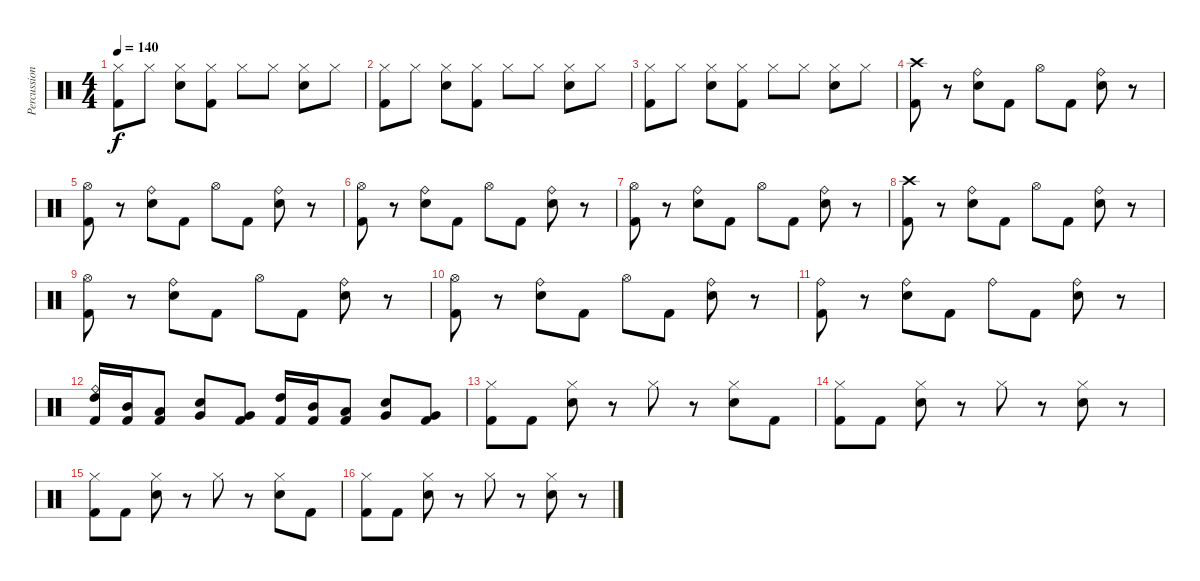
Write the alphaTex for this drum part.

\track ("Percussion" "Percussion") {instrument percussion}
\staff {score}
\articulation defaults
\ts (4 4)
\tempo 140
\clef neutral
\ks c
("Hi-Hat (closed)" "Kick (hit) 2").8{dy f} "Hi-Hat (closed)".8 ("Hi-Hat (closed)" "Snare (hit) 2").8 ("Hi-Hat (closed)" "Kick (hit) 2").8 "Hi-Hat (closed)".8 "Hi-Hat (closed)".8 ("Hi-Hat (closed)" "Snare (hit) 2").8 "Hi-Hat (closed)".8 |
("Hi-Hat (closed)" "Kick (hit) 2").8 "Hi-Hat (closed)".8 ("Hi-Hat (closed)" "Snare (hit) 2").8 ("Hi-Hat (closed)" "Kick (hit) 2").8 "Hi-Hat (closed)".8 "Hi-Hat (closed)".8 ("Hi-Hat (closed)" "Snare (hit) 2").8 "Hi-Hat (closed)".8 |
("Hi-Hat (closed)" "Kick (hit) 2").8 "Hi-Hat (closed)".8 ("Hi-Hat (closed)" "Snare (hit) 2").8 ("Hi-Hat (closed)" "Kick (hit) 2").8 "Hi-Hat (closed)".8 "Hi-Hat (closed)".8 ("Hi-Hat (closed)" "Snare (hit) 2").8 "Hi-Hat (closed)".8 |
("Crash high (hit)" "Kick (hit) 2").8 r.8 ("Ride (bell)" "Snare (hit) 2").8 "Kick (hit) 2".8 "Hi-Hat (open)".8 "Kick (hit) 2".8 ("Ride (bell)" "Snare (hit) 2").8 r.8 |
("Hi-Hat (open)" "Kick (hit) 2").8 r.8 ("Ride (bell)" "Snare (hit) 2").8 "Kick (hit) 2".8 "Hi-Hat (open)".8 "Kick (hit) 2".8 ("Ride (bell)" "Snare (hit) 2").8 r.8 |
("Hi-Hat (open)" "Kick (hit) 2").8 r.8 ("Ride (bell)" "Snare (hit) 2").8 "Kick (hit) 2".8 "Hi-Hat (open)".8 "Kick (hit) 2".8 ("Ride (bell)" "Snare (hit) 2").8 r.8 |
("Hi-Hat (open)" "Kick (hit) 2").8 r.8 ("Ride (bell)" "Snare (hit) 2").8 "Kick (hit) 2".8 "Hi-Hat (open)".8 "Kick (hit) 2".8 ("Ride (bell)" "Snare (hit) 2").8 r.8 |
("Crash high (hit)" "Kick (hit) 2").8 r.8 ("Ride (bell)" "Snare (hit) 2").8 "Kick (hit) 2".8 "Hi-Hat (open)".8 "Kick (hit) 2".8 ("Ride (bell)" "Snare (hit) 2").8 r.8 |
("Hi-Hat (open)" "Kick (hit) 2").8 r.8 ("Ride (bell)" "Snare (hit) 2").8 "Kick (hit) 2".8 "Hi-Hat (open)".8 "Kick (hit) 2".8 ("Ride (bell)" "Snare (hit) 2").8 r.8 |
("Hi-Hat (open)" "Kick (hit) 2").8 r.8 ("Ride (bell)" "Snare (hit) 2").8 "Kick (hit) 2".8 "Hi-Hat (open)".8 "Kick (hit) 2".8 ("Ride (bell)" "Snare (hit) 2").8 r.8 |
("Ride (bell)" "Kick (hit) 2").8 r.8 ("Ride (bell)" "Snare (hit) 2").8 "Kick (hit) 2".8 "Ride (bell)".8 "Kick (hit) 2".8 ("Ride (bell)" "Snare (hit) 2").8 r.8 |
("Ride (bell)" "High Tom (hit)" "Kick (hit) 2").16 ("Mid Tom (hit)" "Kick (hit) 2").16 ("Low Tom (hit)" "Kick (hit) 2").8 ("Very Low Tom (hit)" "Snare (hit) 2").8 ("Very Low Tom (hit)" "Kick (hit) 2").8 ("High Tom (hit)" "Kick (hit) 2").16 ("Mid Tom (hit)" "Kick (hit) 2").16 ("Low Tom (hit)" "Kick (hit) 2").8 ("Very Low Tom (hit)" "Snare (hit) 2").8 ("Very Low Tom (hit)" "Kick (hit) 2").8 |
("Hi-Hat (closed)" "Kick (hit) 2").8 "Kick (hit) 2".8 ("Hi-Hat (closed)" "Snare (hit) 2").8 r.8 "Hi-Hat (closed)".8 r.8 ("Hi-Hat (closed)" "Snare (hit) 2").8 "Kick (hit) 2".8 |
("Hi-Hat (closed)" "Kick (hit) 2").8 "Kick (hit) 2".8 ("Hi-Hat (closed)" "Snare (hit) 2").8 r.8 "Hi-Hat (closed)".8 r.8 ("Hi-Hat (closed)" "Snare (hit) 2").8 r.8 |
("Hi-Hat (closed)" "Kick (hit) 2").8 "Kick (hit) 2".8 ("Hi-Hat (closed)" "Snare (hit) 2").8 r.8 "Hi-Hat (closed)".8 r.8 ("Hi-Hat (closed)" "Snare (hit) 2").8 "Kick (hit) 2".8 |
("Hi-Hat (closed)" "Kick (hit) 2").8 "Kick (hit) 2".8 ("Hi-Hat (closed)" "Snare (hit) 2").8 r.8 "Hi-Hat (closed)".8 r.8 ("Hi-Hat (closed)" "Snare (hit) 2").8 r.8
